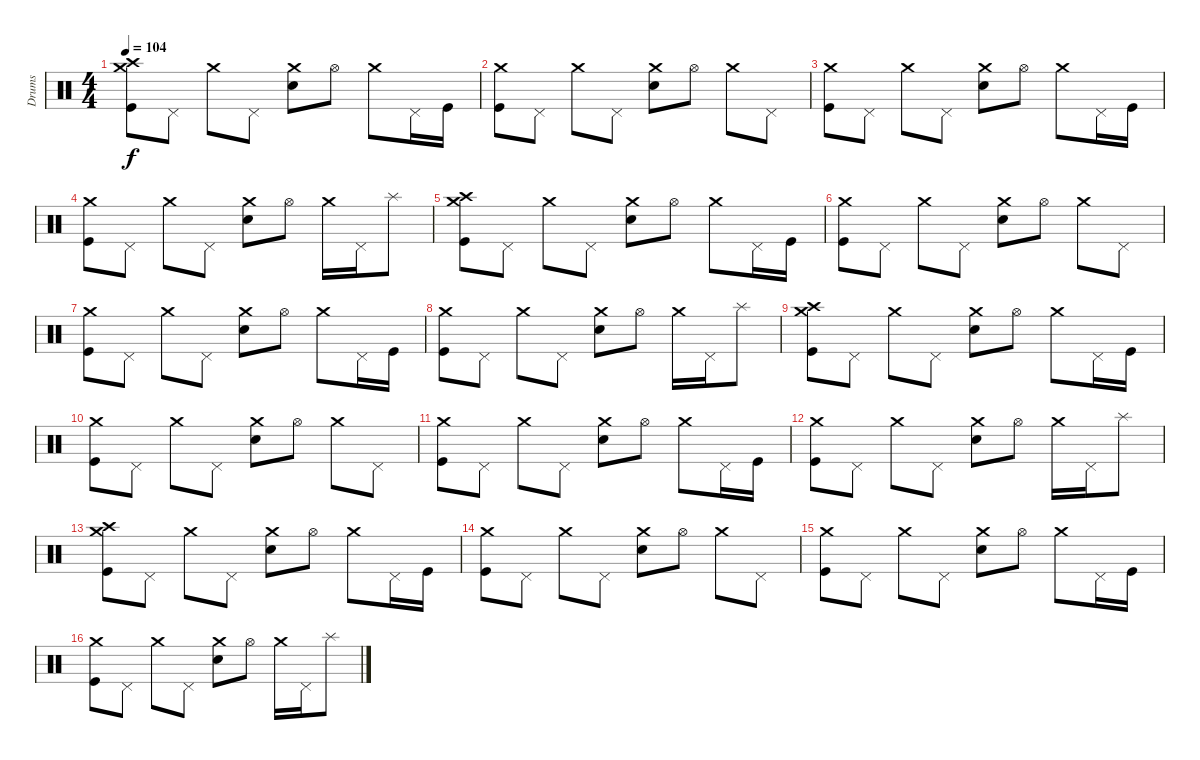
\track ("Drums" "Drums") {instrument percussion}
\staff {score}
\articulation defaults
\ts (4 4)
\tempo 104
\clef neutral
\ks c
("Crash high (hit)" "Crash medium (hit)" "Kick (hit)").8{dy f} "Pedal Hi-Hat (hit)".8 "Crash medium (hit)".8 "Pedal Hi-Hat (hit)".8 ("Crash medium (hit)" "Electric Snare (hit)").8 "Hi-Hat (open)".8 "Crash medium (hit)".8 "Pedal Hi-Hat (hit)".16 "Kick (hit)".16 |
("Crash medium (hit)" "Kick (hit)").8 "Pedal Hi-Hat (hit)".8 "Crash medium (hit)".8 "Pedal Hi-Hat (hit)".8 ("Crash medium (hit)" "Snare (hit) 2").8 "Hi-Hat (open)".8 "Crash medium (hit)".8 "Pedal Hi-Hat (hit)".8 |
("Crash medium (hit)" "Kick (hit)").8 "Pedal Hi-Hat (hit)".8 "Crash medium (hit)".8 "Pedal Hi-Hat (hit)".8 ("Crash medium (hit)" "Snare (hit) 2").8 "Hi-Hat (open)".8 "Crash medium (hit)".8 "Pedal Hi-Hat (hit)".16 "Kick (hit)".16 |
("Crash medium (hit)" "Kick (hit)").8 "Pedal Hi-Hat (hit)".8 "Crash medium (hit)".8 "Pedal Hi-Hat (hit)".8 ("Crash medium (hit)" "Snare (hit) 2").8 "Hi-Hat (open)".8 "Crash medium (hit)".16 "Pedal Hi-Hat (hit)".16 "Splash (hit)".8 |
("Crash high (hit)" "Crash medium (hit)" "Kick (hit)").8 "Pedal Hi-Hat (hit)".8 "Crash medium (hit)".8 "Pedal Hi-Hat (hit)".8 ("Crash medium (hit)" "Electric Snare (hit)").8 "Hi-Hat (open)".8 "Crash medium (hit)".8 "Pedal Hi-Hat (hit)".16 "Kick (hit)".16 |
("Crash medium (hit)" "Kick (hit)").8 "Pedal Hi-Hat (hit)".8 "Crash medium (hit)".8 "Pedal Hi-Hat (hit)".8 ("Crash medium (hit)" "Snare (hit) 2").8 "Hi-Hat (open)".8 "Crash medium (hit)".8 "Pedal Hi-Hat (hit)".8 |
("Crash medium (hit)" "Kick (hit)").8 "Pedal Hi-Hat (hit)".8 "Crash medium (hit)".8 "Pedal Hi-Hat (hit)".8 ("Crash medium (hit)" "Snare (hit) 2").8 "Hi-Hat (open)".8 "Crash medium (hit)".8 "Pedal Hi-Hat (hit)".16 "Kick (hit)".16 |
("Crash medium (hit)" "Kick (hit)").8 "Pedal Hi-Hat (hit)".8 "Crash medium (hit)".8 "Pedal Hi-Hat (hit)".8 ("Crash medium (hit)" "Snare (hit) 2").8 "Hi-Hat (open)".8 "Crash medium (hit)".16 "Pedal Hi-Hat (hit)".16 "Splash (hit)".8 |
("Crash high (hit)" "Crash medium (hit)" "Kick (hit)").8 "Pedal Hi-Hat (hit)".8 "Crash medium (hit)".8 "Pedal Hi-Hat (hit)".8 ("Crash medium (hit)" "Electric Snare (hit)").8 "Hi-Hat (open)".8 "Crash medium (hit)".8 "Pedal Hi-Hat (hit)".16 "Kick (hit)".16 |
("Crash medium (hit)" "Kick (hit)").8 "Pedal Hi-Hat (hit)".8 "Crash medium (hit)".8 "Pedal Hi-Hat (hit)".8 ("Crash medium (hit)" "Snare (hit) 2").8 "Hi-Hat (open)".8 "Crash medium (hit)".8 "Pedal Hi-Hat (hit)".8 |
("Crash medium (hit)" "Kick (hit)").8 "Pedal Hi-Hat (hit)".8 "Crash medium (hit)".8 "Pedal Hi-Hat (hit)".8 ("Crash medium (hit)" "Snare (hit) 2").8 "Hi-Hat (open)".8 "Crash medium (hit)".8 "Pedal Hi-Hat (hit)".16 "Kick (hit)".16 |
("Crash medium (hit)" "Kick (hit)").8 "Pedal Hi-Hat (hit)".8 "Crash medium (hit)".8 "Pedal Hi-Hat (hit)".8 ("Crash medium (hit)" "Snare (hit) 2").8 "Hi-Hat (open)".8 "Crash medium (hit)".16 "Pedal Hi-Hat (hit)".16 "Splash (hit)".8 |
("Crash high (hit)" "Crash medium (hit)" "Kick (hit)").8 "Pedal Hi-Hat (hit)".8 "Crash medium (hit)".8 "Pedal Hi-Hat (hit)".8 ("Crash medium (hit)" "Electric Snare (hit)").8 "Hi-Hat (open)".8 "Crash medium (hit)".8 "Pedal Hi-Hat (hit)".16 "Kick (hit)".16 |
("Crash medium (hit)" "Kick (hit)").8 "Pedal Hi-Hat (hit)".8 "Crash medium (hit)".8 "Pedal Hi-Hat (hit)".8 ("Crash medium (hit)" "Snare (hit) 2").8 "Hi-Hat (open)".8 "Crash medium (hit)".8 "Pedal Hi-Hat (hit)".8 |
("Crash medium (hit)" "Kick (hit)").8 "Pedal Hi-Hat (hit)".8 "Crash medium (hit)".8 "Pedal Hi-Hat (hit)".8 ("Crash medium (hit)" "Snare (hit) 2").8 "Hi-Hat (open)".8 "Crash medium (hit)".8 "Pedal Hi-Hat (hit)".16 "Kick (hit)".16 |
("Crash medium (hit)" "Kick (hit)").8 "Pedal Hi-Hat (hit)".8 "Crash medium (hit)".8 "Pedal Hi-Hat (hit)".8 ("Crash medium (hit)" "Snare (hit) 2").8 "Hi-Hat (open)".8 "Crash medium (hit)".16 "Pedal Hi-Hat (hit)".16 "Splash (hit)".8
